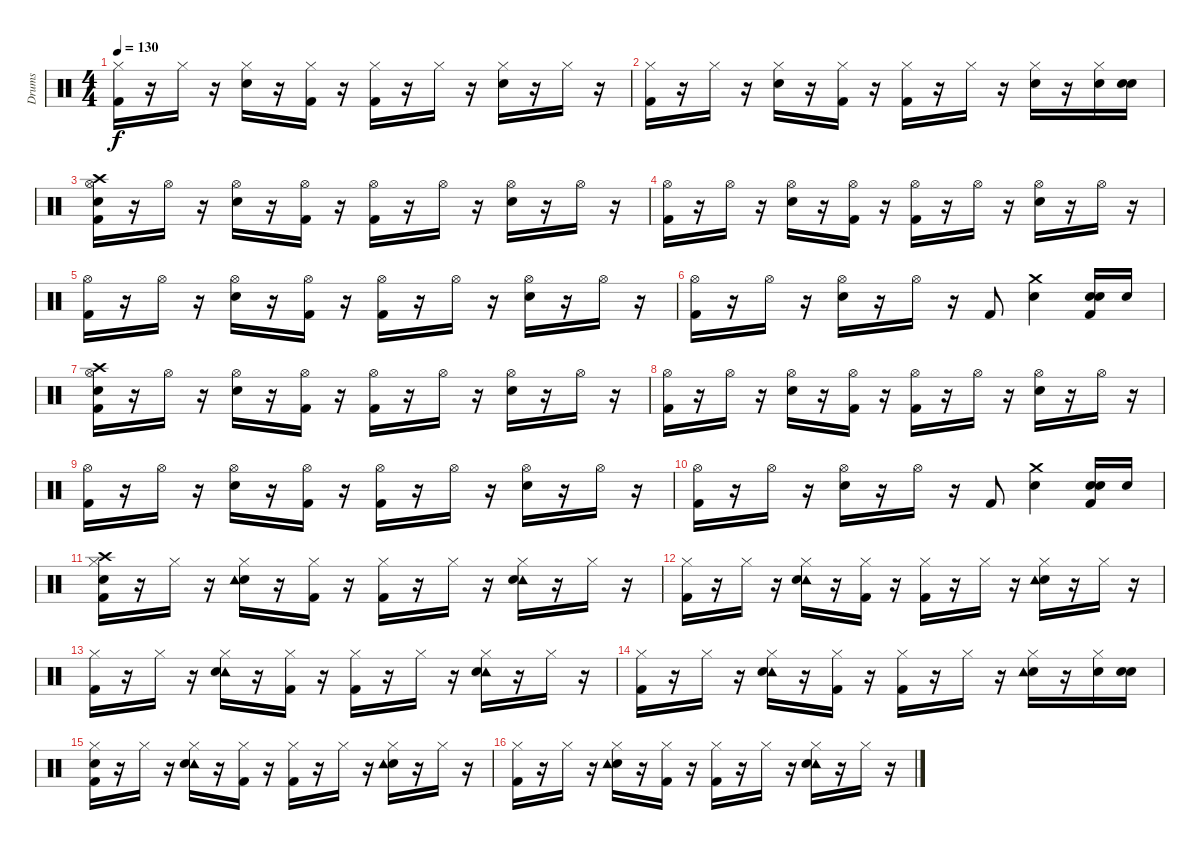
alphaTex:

\track ("Drums" "Drums") {instrument percussion}
\staff {score}
\articulation defaults
\ts (4 4)
\tempo 130
\clef neutral
\ks c
("Kick (hit) 2" "Hi-Hat (closed)").16{dy f} r.16 "Hi-Hat (closed)".16 r.16 ("Snare (hit) 2" "Hi-Hat (closed)").16 r.16 ("Kick (hit) 2" "Hi-Hat (closed)").16 r.16 ("Hi-Hat (closed)" "Kick (hit) 2").16 r.16 "Hi-Hat (closed)".16 r.16 ("Snare (hit) 2" "Hi-Hat (closed)").16 r.16 "Hi-Hat (closed)".16 r.16 |
("Kick (hit) 2" "Hi-Hat (closed)").16 r.16 "Hi-Hat (closed)".16 r.16 ("Hi-Hat (closed)" "Snare (hit) 2").16 r.16 ("Hi-Hat (closed)" "Kick (hit) 2").16 r.16 ("Kick (hit) 2" "Hi-Hat (closed)").16 r.16 "Hi-Hat (closed)".16 r.16 ("Hi-Hat (closed)" "Snare (hit) 2").16 r.16 ("Snare (hit) 2" "Hi-Hat (closed)").16 ("Snare (hit)" "Snare (hit) 2").16 |
("Snare (hit)" "Hi-Hat (open)" "Kick (hit) 2" "Crash high (hit)").16 r.16 "Hi-Hat (open)".16 r.16 ("Snare (hit) 2" "Hi-Hat (open)").16 r.16 ("Hi-Hat (open)" "Kick (hit) 2").16 r.16 ("Kick (hit) 2" "Hi-Hat (open)").16 r.16 "Hi-Hat (open)".16 r.16 ("Hi-Hat (open)" "Snare (hit) 2").16 r.16 "Hi-Hat (open)".16 r.16 |
("Hi-Hat (open)" "Kick (hit) 2").16 r.16 "Hi-Hat (open)".16 r.16 ("Snare (hit) 2" "Hi-Hat (open)").16 r.16 ("Kick (hit) 2" "Hi-Hat (open)").16 r.16 ("Kick (hit) 2" "Hi-Hat (open)").16 r.16 "Hi-Hat (open)".16 r.16 ("Snare (hit) 2" "Hi-Hat (open)").16 r.16 "Hi-Hat (open)".16 r.16 |
("Hi-Hat (open)" "Kick (hit) 2").16 r.16 "Hi-Hat (open)".16 r.16 ("Hi-Hat (open)" "Snare (hit) 2").16 r.16 ("Hi-Hat (open)" "Kick (hit) 2").16 r.16 ("Kick (hit) 2" "Hi-Hat (open)").16 r.16 "Hi-Hat (open)".16 r.16 ("Hi-Hat (open)" "Snare (hit) 2").16 r.16 "Hi-Hat (open)".16 r.16 |
("Kick (hit) 2" "Hi-Hat (open)").16 r.16 "Hi-Hat (open)".16 r.16 ("Hi-Hat (open)" "Snare (hit) 2").16 r.16 "Hi-Hat (open)".16 r.16 "Kick (hit) 2".8 ("Snare (hit) 2" "Crash medium (hit)").4 ("Snare (hit)" "Kick (hit) 2" "Snare (hit) 2").16 "Snare (hit) 2".16 |
("Snare (hit)" "Kick (hit) 2" "Hi-Hat (open)" "Crash high (hit)").16 r.16 "Hi-Hat (open)".16 r.16 ("Hi-Hat (open)" "Snare (hit) 2").16 r.16 ("Kick (hit) 2" "Hi-Hat (open)").16 r.16 ("Hi-Hat (open)" "Kick (hit) 2").16 r.16 "Hi-Hat (open)".16 r.16 ("Hi-Hat (open)" "Snare (hit) 2").16 r.16 "Hi-Hat (open)".16 r.16 |
("Kick (hit) 2" "Hi-Hat (open)").16 r.16 "Hi-Hat (open)".16 r.16 ("Hi-Hat (open)" "Snare (hit) 2").16 r.16 ("Kick (hit) 2" "Hi-Hat (open)").16 r.16 ("Hi-Hat (open)" "Kick (hit) 2").16 r.16 "Hi-Hat (open)".16 r.16 ("Snare (hit) 2" "Hi-Hat (open)").16 r.16 "Hi-Hat (open)".16 r.16 |
("Hi-Hat (open)" "Kick (hit) 2").16 r.16 "Hi-Hat (open)".16 r.16 ("Snare (hit) 2" "Hi-Hat (open)").16 r.16 ("Hi-Hat (open)" "Kick (hit) 2").16 r.16 ("Hi-Hat (open)" "Kick (hit) 2").16 r.16 "Hi-Hat (open)".16 r.16 ("Hi-Hat (open)" "Snare (hit) 2").16 r.16 "Hi-Hat (open)".16 r.16 |
("Kick (hit) 2" "Hi-Hat (open)").16 r.16 "Hi-Hat (open)".16 r.16 ("Snare (hit) 2" "Hi-Hat (open)").16 r.16 "Hi-Hat (open)".16 r.16 "Kick (hit) 2".8 ("Crash medium (hit)" "Snare (hit) 2").4 ("Snare (hit)" "Snare (hit) 2" "Kick (hit) 2").16 "Snare (hit) 2".16 |
("Snare (hit)" "Kick (hit) 2" "Crash high (hit)" "Hi-Hat (closed)").16 r.16 "Hi-Hat (closed)".16 r.16 ("Snare (hit) 2" "Hi-Hat (closed)" "Tambourine (hit)").16 r.16 ("Hi-Hat (closed)" "Kick (hit) 2").16 r.16 ("Kick (hit) 2" "Hi-Hat (closed)").16 r.16 "Hi-Hat (closed)".16 r.16 ("Tambourine (hit)" "Hi-Hat (closed)" "Snare (hit) 2").16 r.16 "Hi-Hat (closed)".16 r.16 |
("Kick (hit) 2" "Hi-Hat (closed)").16 r.16 "Hi-Hat (closed)".16 r.16 ("Tambourine (hit)" "Snare (hit) 2" "Hi-Hat (closed)").16 r.16 ("Hi-Hat (closed)" "Kick (hit) 2").16 r.16 ("Kick (hit) 2" "Hi-Hat (closed)").16 r.16 "Hi-Hat (closed)".16 r.16 ("Snare (hit) 2" "Hi-Hat (closed)" "Tambourine (hit)").16 r.16 "Hi-Hat (closed)".16 r.16 |
("Hi-Hat (closed)" "Kick (hit) 2").16 r.16 "Hi-Hat (closed)".16 r.16 ("Hi-Hat (closed)" "Tambourine (hit)" "Snare (hit) 2").16 r.16 ("Kick (hit) 2" "Hi-Hat (closed)").16 r.16 ("Kick (hit) 2" "Hi-Hat (closed)").16 r.16 "Hi-Hat (closed)".16 r.16 ("Tambourine (hit)" "Hi-Hat (closed)" "Snare (hit) 2").16 r.16 "Hi-Hat (closed)".16 r.16 |
("Hi-Hat (closed)" "Kick (hit) 2").16 r.16 "Hi-Hat (closed)".16 r.16 ("Tambourine (hit)" "Hi-Hat (closed)" "Snare (hit) 2").16 r.16 ("Hi-Hat (closed)" "Kick (hit) 2").16 r.16 ("Hi-Hat (closed)" "Kick (hit) 2").16 r.16 "Hi-Hat (closed)".16 r.16 ("Snare (hit) 2" "Tambourine (hit)" "Hi-Hat (closed)").16 r.16 ("Snare (hit) 2" "Hi-Hat (closed)").16 ("Snare (hit)" "Snare (hit) 2").16 |
("Snare (hit)" "Hi-Hat (closed)" "Kick (hit) 2").16 r.16 "Hi-Hat (closed)".16 r.16 ("Tambourine (hit)" "Snare (hit) 2" "Hi-Hat (closed)").16 r.16 ("Hi-Hat (closed)" "Kick (hit) 2").16 r.16 ("Kick (hit) 2" "Hi-Hat (closed)").16 r.16 "Hi-Hat (closed)".16 r.16 ("Snare (hit) 2" "Hi-Hat (closed)" "Tambourine (hit)").16 r.16 "Hi-Hat (closed)".16 r.16 |
("Hi-Hat (closed)" "Kick (hit) 2").16 r.16 "Hi-Hat (closed)".16 r.16 ("Snare (hit) 2" "Tambourine (hit)" "Hi-Hat (closed)").16 r.16 ("Hi-Hat (closed)" "Kick (hit) 2").16 r.16 ("Kick (hit) 2" "Hi-Hat (closed)").16 r.16 "Hi-Hat (closed)".16 r.16 ("Hi-Hat (closed)" "Tambourine (hit)" "Snare (hit) 2").16 r.16 "Hi-Hat (closed)".16 r.16
